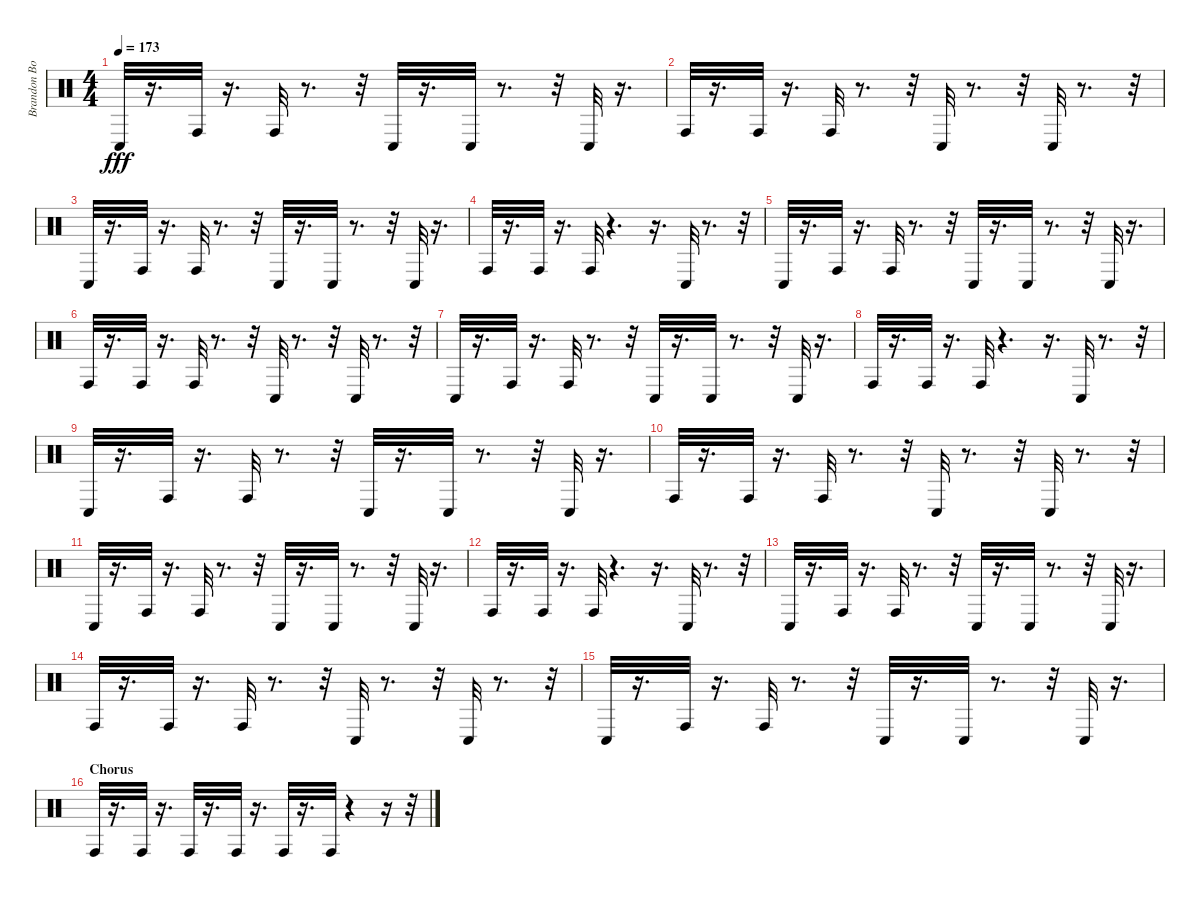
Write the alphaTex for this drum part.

\track ("Brandon Boyd-Percussion" "Brandon Bo") {instrument percussion}
\staff {score}
\articulation defaults
\ts (4 4)
\tempo 173
\clef neutral
\ks c "Conga low (hit)".32{dy fff}
r.16{d} "Conga high (hit)".32 r.16{d} "Conga high (hit)".32 r.8{d} r.32 "Conga low (hit)".32 r.16{d} "Conga low (hit)".32 r.8{d} r.32 "Conga low (hit)".32 r.16{d} |
"Conga high (hit)".32 r.16{d} "Conga high (hit)".32 r.16{d} "Conga high (hit)".32 r.8{d} r.32 "Conga low (hit)".32 r.8{d} r.32 "Conga low (hit)".32 r.8{d} r.32 |
"Conga low (hit)".32 r.16{d} "Conga high (hit)".32 r.16{d} "Conga high (hit)".32 r.8{d} r.32 "Conga low (hit)".32 r.16{d} "Conga low (hit)".32 r.8{d} r.32 "Conga low (hit)".32 r.16{d} |
"Conga high (hit)".32 r.16{d} "Conga high (hit)".32 r.16{d} "Conga high (hit)".32 r.4{d} r.16{d} "Conga low (hit)".32 r.8{d} r.32 |
"Conga low (hit)".32 r.16{d} "Conga high (hit)".32 r.16{d} "Conga high (hit)".32 r.8{d} r.32 "Conga low (hit)".32 r.16{d} "Conga low (hit)".32 r.8{d} r.32 "Conga low (hit)".32 r.16{d} |
"Conga high (hit)".32 r.16{d} "Conga high (hit)".32 r.16{d} "Conga high (hit)".32 r.8{d} r.32 "Conga low (hit)".32 r.8{d} r.32 "Conga low (hit)".32 r.8{d} r.32 |
"Conga low (hit)".32 r.16{d} "Conga high (hit)".32 r.16{d} "Conga high (hit)".32 r.8{d} r.32 "Conga low (hit)".32 r.16{d} "Conga low (hit)".32 r.8{d} r.32 "Conga low (hit)".32 r.16{d} |
"Conga high (hit)".32 r.16{d} "Conga high (hit)".32 r.16{d} "Conga high (hit)".32 r.4{d} r.16{d} "Conga low (hit)".32 r.8{d} r.32 |
"Conga low (hit)".32 r.16{d} "Conga high (hit)".32 r.16{d} "Conga high (hit)".32 r.8{d} r.32 "Conga low (hit)".32 r.16{d} "Conga low (hit)".32 r.8{d} r.32 "Conga low (hit)".32 r.16{d} |
"Conga high (hit)".32 r.16{d} "Conga high (hit)".32 r.16{d} "Conga high (hit)".32 r.8{d} r.32 "Conga low (hit)".32 r.8{d} r.32 "Conga low (hit)".32 r.8{d} r.32 |
"Conga low (hit)".32 r.16{d} "Conga high (hit)".32 r.16{d} "Conga high (hit)".32 r.8{d} r.32 "Conga low (hit)".32 r.16{d} "Conga low (hit)".32 r.8{d} r.32 "Conga low (hit)".32 r.16{d} |
"Conga high (hit)".32 r.16{d} "Conga high (hit)".32 r.16{d} "Conga high (hit)".32 r.4{d} r.16{d} "Conga low (hit)".32 r.8{d} r.32 |
"Conga low (hit)".32 r.16{d} "Conga high (hit)".32 r.16{d} "Conga high (hit)".32 r.8{d} r.32 "Conga low (hit)".32 r.16{d} "Conga low (hit)".32 r.8{d} r.32 "Conga low (hit)".32 r.16{d} |
"Conga high (hit)".32 r.16{d} "Conga high (hit)".32 r.16{d} "Conga high (hit)".32 r.8{d} r.32 "Conga low (hit)".32 r.8{d} r.32 "Conga low (hit)".32 r.8{d} r.32 |
"Conga low (hit)".32 r.16{d} "Conga high (hit)".32 r.16{d} "Conga high (hit)".32 r.8{d} r.32 "Conga low (hit)".32 r.16{d} "Conga low (hit)".32 r.8{d} r.32 "Conga low (hit)".32 r.16{d} |
\section ("" "Chorus")
"Conga high (hit)".32 r.16{d} "Conga high (hit)".32 r.16{d} "Conga high (hit)".32 r.16{d} "Conga high (hit)".32 r.16{d} "Conga high (hit)".32 r.16{d} "Conga high (hit)".32 r.4 r.16 r.32
